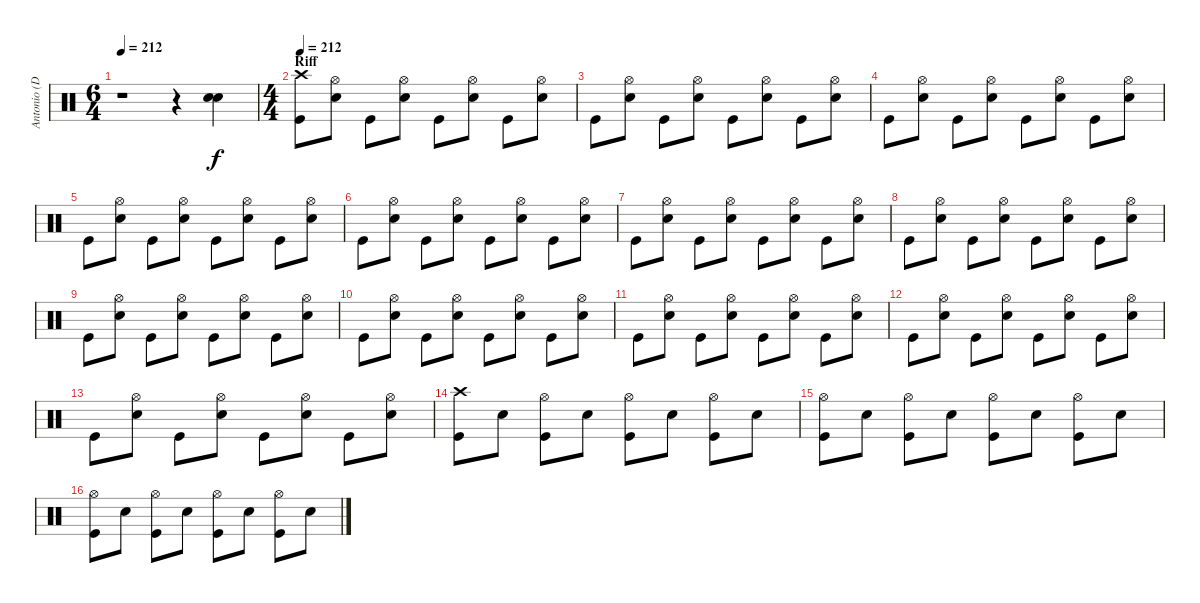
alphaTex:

\track ("Antonio (Drums)" "Antonio (D") {instrument percussion}
\staff {score}
\articulation defaults
\ts (6 4)
\tempo 212
\clef neutral
\ks c
r.1{dy f} r.4 ("Electric Snare (hit)" "Electric Snare (hit)").4{bu 120} |
\ts (4 4)
\section ("" "Riff")
\tempo 212
("Crash high (hit)" "Kick (hit)").8 ("Hi-Hat (open)" "Electric Snare (hit)").8 "Kick (hit)".8 ("Hi-Hat (open)" "Electric Snare (hit)").8 "Kick (hit)".8 ("Hi-Hat (open)" "Electric Snare (hit)").8 "Kick (hit)".8 ("Hi-Hat (open)" "Electric Snare (hit)").8 |
"Kick (hit)".8 ("Hi-Hat (open)" "Electric Snare (hit)").8 "Kick (hit)".8 ("Hi-Hat (open)" "Electric Snare (hit)").8 "Kick (hit)".8 ("Hi-Hat (open)" "Electric Snare (hit)").8 "Kick (hit)".8 ("Hi-Hat (open)" "Electric Snare (hit)").8 |
"Kick (hit)".8 ("Hi-Hat (open)" "Electric Snare (hit)").8 "Kick (hit)".8 ("Hi-Hat (open)" "Electric Snare (hit)").8 "Kick (hit)".8 ("Hi-Hat (open)" "Electric Snare (hit)").8 "Kick (hit)".8 ("Hi-Hat (open)" "Electric Snare (hit)").8 |
"Kick (hit)".8 ("Hi-Hat (open)" "Electric Snare (hit)").8 "Kick (hit)".8 ("Hi-Hat (open)" "Electric Snare (hit)").8 "Kick (hit)".8 ("Hi-Hat (open)" "Electric Snare (hit)").8 "Kick (hit)".8 ("Hi-Hat (open)" "Electric Snare (hit)").8 |
"Kick (hit)".8 ("Hi-Hat (open)" "Electric Snare (hit)").8 "Kick (hit)".8 ("Hi-Hat (open)" "Electric Snare (hit)").8 "Kick (hit)".8 ("Hi-Hat (open)" "Electric Snare (hit)").8 "Kick (hit)".8 ("Hi-Hat (open)" "Electric Snare (hit)").8 |
"Kick (hit)".8 ("Hi-Hat (open)" "Electric Snare (hit)").8 "Kick (hit)".8 ("Hi-Hat (open)" "Electric Snare (hit)").8 "Kick (hit)".8 ("Hi-Hat (open)" "Electric Snare (hit)").8 "Kick (hit)".8 ("Hi-Hat (open)" "Electric Snare (hit)").8 |
"Kick (hit)".8 ("Hi-Hat (open)" "Electric Snare (hit)").8 "Kick (hit)".8 ("Hi-Hat (open)" "Electric Snare (hit)").8 "Kick (hit)".8 ("Hi-Hat (open)" "Electric Snare (hit)").8 "Kick (hit)".8 ("Hi-Hat (open)" "Electric Snare (hit)").8 |
"Kick (hit)".8 ("Hi-Hat (open)" "Electric Snare (hit)").8 "Kick (hit)".8 ("Hi-Hat (open)" "Electric Snare (hit)").8 "Kick (hit)".8 ("Hi-Hat (open)" "Electric Snare (hit)").8 "Kick (hit)".8 ("Hi-Hat (open)" "Electric Snare (hit)").8 |
"Kick (hit)".8 ("Hi-Hat (open)" "Electric Snare (hit)").8 "Kick (hit)".8 ("Hi-Hat (open)" "Electric Snare (hit)").8 "Kick (hit)".8 ("Hi-Hat (open)" "Electric Snare (hit)").8 "Kick (hit)".8 ("Hi-Hat (open)" "Electric Snare (hit)").8 |
"Kick (hit)".8 ("Hi-Hat (open)" "Electric Snare (hit)").8 "Kick (hit)".8 ("Hi-Hat (open)" "Electric Snare (hit)").8 "Kick (hit)".8 ("Hi-Hat (open)" "Electric Snare (hit)").8 "Kick (hit)".8 ("Hi-Hat (open)" "Electric Snare (hit)").8 |
"Kick (hit)".8 ("Hi-Hat (open)" "Electric Snare (hit)").8 "Kick (hit)".8 ("Hi-Hat (open)" "Electric Snare (hit)").8 "Kick (hit)".8 ("Hi-Hat (open)" "Electric Snare (hit)").8 "Kick (hit)".8 ("Hi-Hat (open)" "Electric Snare (hit)").8 |
"Kick (hit)".8 ("Hi-Hat (open)" "Electric Snare (hit)").8 "Kick (hit)".8 ("Hi-Hat (open)" "Electric Snare (hit)").8 "Kick (hit)".8 ("Hi-Hat (open)" "Electric Snare (hit)").8 "Kick (hit)".8 ("Hi-Hat (open)" "Electric Snare (hit)").8 |
("Crash high (hit)" "Kick (hit)").8 "Electric Snare (hit)".8 ("Hi-Hat (open)" "Kick (hit)").8 "Electric Snare (hit)".8 ("Hi-Hat (open)" "Kick (hit)").8 "Electric Snare (hit)".8 ("Hi-Hat (open)" "Kick (hit)").8 "Electric Snare (hit)".8 |
("Hi-Hat (open)" "Kick (hit)").8 "Electric Snare (hit)".8 ("Hi-Hat (open)" "Kick (hit)").8 "Electric Snare (hit)".8 ("Hi-Hat (open)" "Kick (hit)").8 "Electric Snare (hit)".8 ("Hi-Hat (open)" "Kick (hit)").8 "Electric Snare (hit)".8 |
("Hi-Hat (open)" "Kick (hit)").8 "Electric Snare (hit)".8 ("Hi-Hat (open)" "Kick (hit)").8 "Electric Snare (hit)".8 ("Hi-Hat (open)" "Kick (hit)").8 "Electric Snare (hit)".8 ("Hi-Hat (open)" "Kick (hit)").8 "Electric Snare (hit)".8
